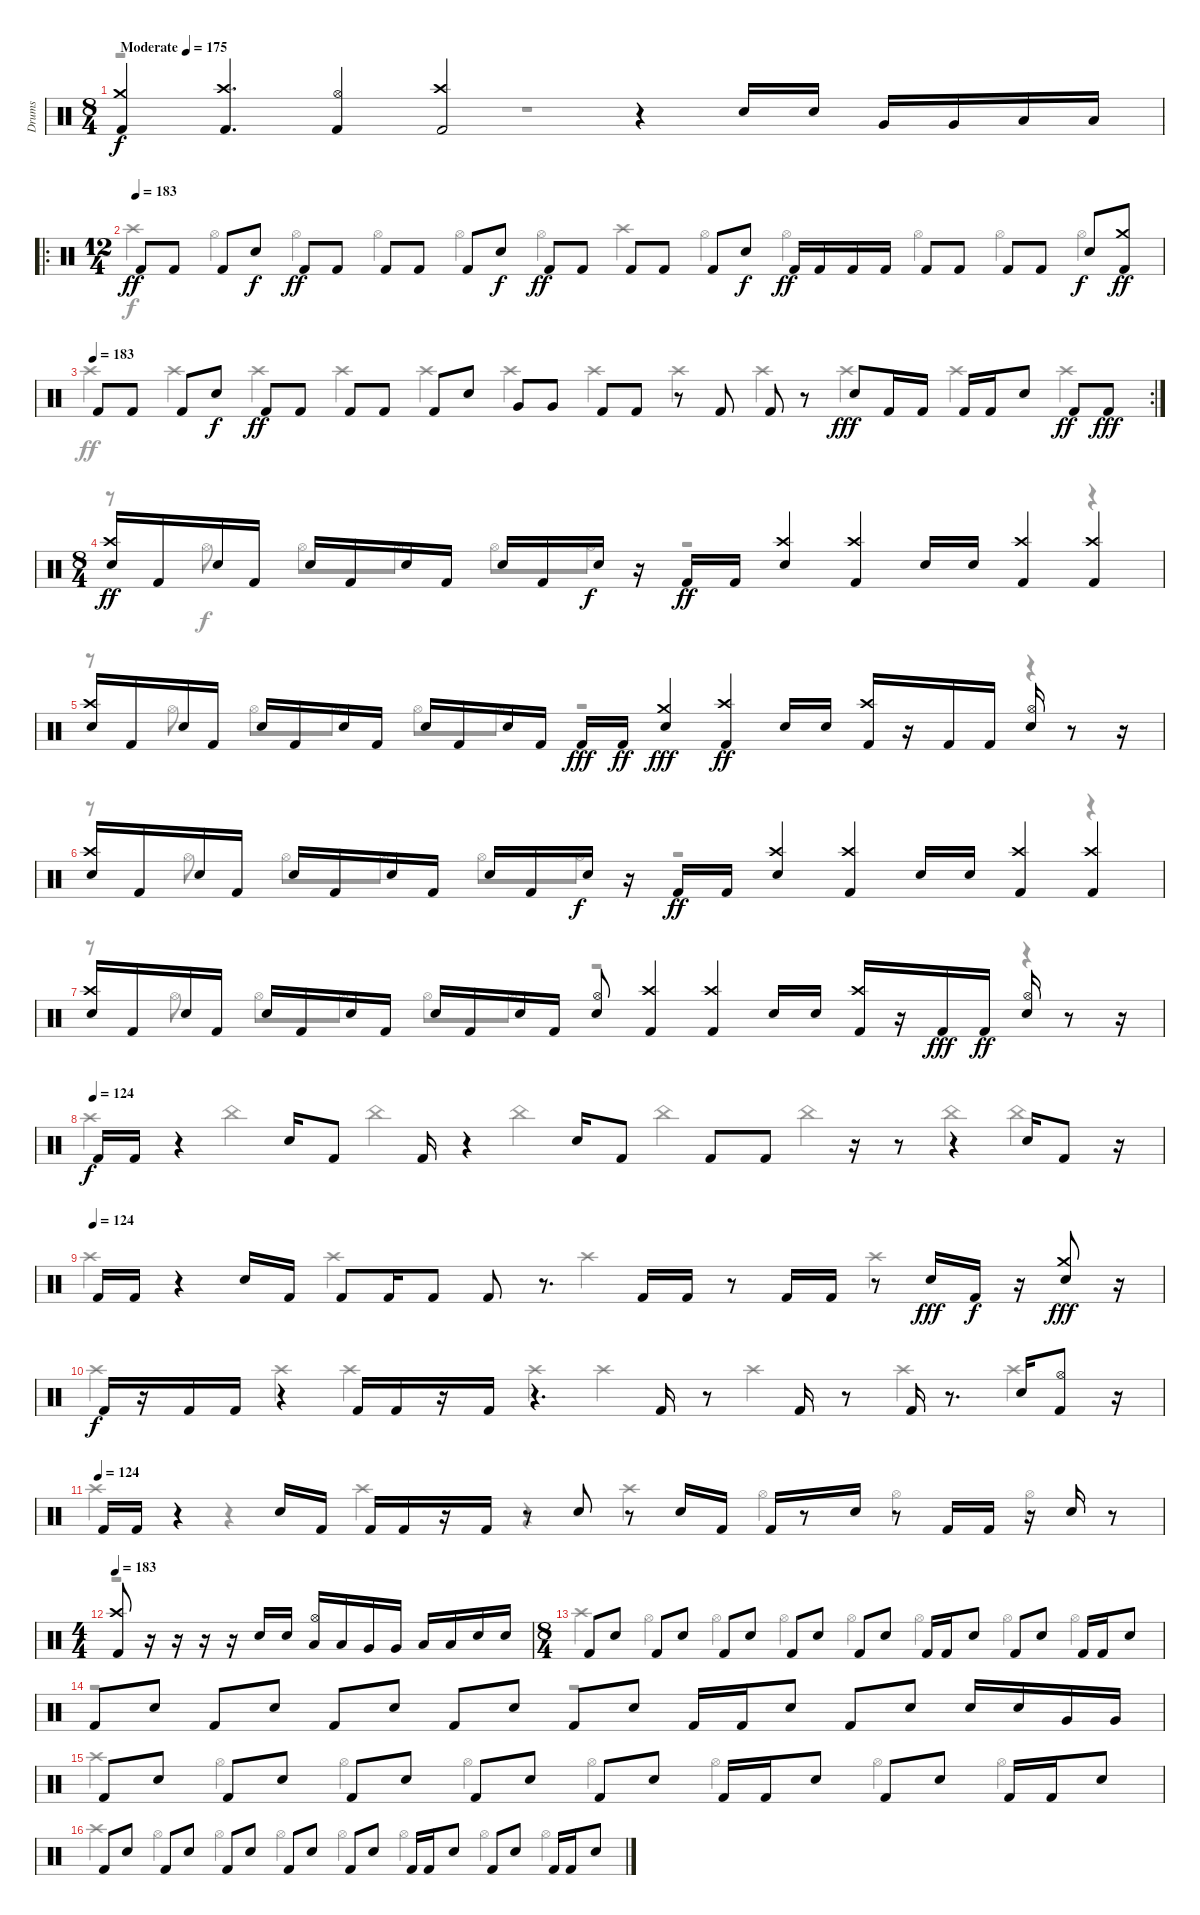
\track ("Drums" "Drums") {instrument percussion}
\staff {score}
\articulation defaults
\voice
\ts (8 4)
\tempo (175 "Moderate")
\tempo 170
\tempo (175 "Moderate")
\clef neutral
\ks c
("Crash medium (hit)" "Kick (hit) 2").4{dy f} ("Crash high (hit)" "Kick (hit) 2").4{d} ("Hi-Hat (open)" "Kick (hit) 2").4 ("Crash high (hit)" "Kick (hit) 2").2 r.4 "Electric Snare (hit)".16 "Electric Snare (hit)".16 "Very Low Tom (hit)".16 "Very Low Tom (hit)".16 "Low Tom (hit)".16 "Low Tom (hit)".16 |
\ro
\ts (12 4)
\tempo (183)
"Kick (hit) 2".8{dy ff} "Kick (hit) 2".8 "Kick (hit) 2".8 "Electric Snare (hit)".8{dy f} "Kick (hit) 2".8{dy ff} "Kick (hit) 2".8 "Kick (hit) 2".8 "Kick (hit) 2".8 "Kick (hit) 2".8 "Electric Snare (hit)".8{dy f} "Kick (hit) 2".8{dy ff} "Kick (hit) 2".8 "Kick (hit) 2".8 "Kick (hit) 2".8 "Kick (hit) 2".8 "Electric Snare (hit)".8{dy f} "Kick (hit) 2".16{dy ff} "Kick (hit) 2".16 "Kick (hit) 2".16 "Kick (hit) 2".16 "Kick (hit) 2".8 "Kick (hit) 2".8 "Kick (hit) 2".8 "Kick (hit) 2".8 "Electric Snare (hit)".8{dy f} ("Crash medium (hit)" "Kick (hit) 2").8{dy ff} |
\rc 2
\tempo (183)
"Kick (hit) 2".8 "Kick (hit) 2".8 "Kick (hit) 2".8 "Electric Snare (hit)".8{dy f} "Kick (hit) 2".8{dy ff} "Kick (hit) 2".8 "Kick (hit) 2".8 "Kick (hit) 2".8 "Kick (hit) 2".8 "Electric Snare (hit)".8 "Very Low Tom (hit)".8 "Very Low Tom (hit)".8 "Kick (hit) 2".8 "Kick (hit) 2".8 r.8 "Kick (hit) 2".8 "Kick (hit) 2".8 r.8 "Electric Snare (hit)".8{dy fff} "Kick (hit) 2".16 "Kick (hit) 2".16 "Kick (hit) 2".16 "Kick (hit) 2".16 "Electric Snare (hit)".8 "Kick (hit) 2".8{dy ff} "Kick (hit) 2".8{dy fff} |
\ts (8 4)
("Crash high (hit)" "Electric Snare (hit)").16{dy ff} "Kick (hit) 2".16 "Electric Snare (hit)".16 "Kick (hit) 2".16 "Electric Snare (hit)".16 "Kick (hit) 2".16 "Electric Snare (hit)".16 "Kick (hit) 2".16 "Electric Snare (hit)".16 "Kick (hit) 2".16 "Electric Snare (hit)".16{dy f} r.16 "Kick (hit) 2".16{dy ff} "Kick (hit) 2".16 ("Crash high (hit)" "Electric Snare (hit)").4 ("Crash high (hit)" "Kick (hit) 2").4 "Electric Snare (hit)".16 "Electric Snare (hit)".16 ("Crash high (hit)" "Kick (hit) 2").4 ("Crash high (hit)" "Kick (hit) 2").4 |
("Crash high (hit)" "Electric Snare (hit)").16 "Kick (hit) 2".16 "Electric Snare (hit)".16 "Kick (hit) 2".16 "Electric Snare (hit)".16 "Kick (hit) 2".16 "Electric Snare (hit)".16 "Kick (hit) 2".16 "Electric Snare (hit)".16 "Kick (hit) 2".16 "Electric Snare (hit)".16 "Kick (hit) 2".16 "Kick (hit) 2".16{dy fff} "Kick (hit) 2".16{dy ff} ("Crash medium (hit)" "Electric Snare (hit)").4{dy fff} ("Crash high (hit)" "Kick (hit) 2").4{dy ff} "Electric Snare (hit)".16 "Electric Snare (hit)".16 ("Crash high (hit)" "Kick (hit) 2").16 r.16 "Kick (hit) 2".16 "Kick (hit) 2".16 ("Hi-Hat (open)" "Electric Snare (hit)").16 r.8 r.16 |
("Crash high (hit)" "Electric Snare (hit)").16 "Kick (hit) 2".16 "Electric Snare (hit)".16 "Kick (hit) 2".16 "Electric Snare (hit)".16 "Kick (hit) 2".16 "Electric Snare (hit)".16 "Kick (hit) 2".16 "Electric Snare (hit)".16 "Kick (hit) 2".16 "Electric Snare (hit)".16{dy f} r.16 "Kick (hit) 2".16{dy ff} "Kick (hit) 2".16 ("Crash high (hit)" "Electric Snare (hit)").4 ("Crash high (hit)" "Kick (hit) 2").4 "Electric Snare (hit)".16 "Electric Snare (hit)".16 ("Crash high (hit)" "Kick (hit) 2").4 ("Crash high (hit)" "Kick (hit) 2").4 |
("Crash high (hit)" "Electric Snare (hit)").16 "Kick (hit) 2".16 "Electric Snare (hit)".16 "Kick (hit) 2".16 "Electric Snare (hit)".16 "Kick (hit) 2".16 "Electric Snare (hit)".16 "Kick (hit) 2".16 "Electric Snare (hit)".16 "Kick (hit) 2".16 "Electric Snare (hit)".16 "Kick (hit) 2".16 ("Hi-Hat (open)" "Electric Snare (hit)").8 ("Crash high (hit)" "Kick (hit) 2").4 ("Crash high (hit)" "Kick (hit) 2").4 "Electric Snare (hit)".16 "Electric Snare (hit)".16 ("Crash high (hit)" "Kick (hit) 2").16 r.16 "Kick (hit) 2".16{dy fff} "Kick (hit) 2".16{dy ff} ("Hi-Hat (open)" "Electric Snare (hit)").16 r.8 r.16 |
\tempo (124)
"Kick (hit) 2".16{dy f} "Kick (hit) 2".16 r.4 "Electric Snare (hit)".16 "Kick (hit) 2".8 "Kick (hit) 2".16 r.4 "Electric Snare (hit)".16 "Kick (hit) 2".8 "Kick (hit) 2".8 "Kick (hit) 2".8 r.16 r.8 r.4 "Electric Snare (hit)".16 "Kick (hit) 2".8 r.16 |
\tempo (124)
"Kick (hit) 2".16 "Kick (hit) 2".16 r.4 "Electric Snare (hit)".16 "Kick (hit) 2".16 "Kick (hit) 2".8 "Kick (hit) 2".16 "Kick (hit) 2".8 "Kick (hit) 2".8 r.8{d} "Kick (hit) 2".16 "Kick (hit) 2".16 r.8 "Kick (hit) 2".16 "Kick (hit) 2".16 r.8 "Electric Snare (hit)".16{dy fff} "Kick (hit) 2".16{dy f} r.16 ("Crash medium (hit)" "Electric Snare (hit)").8{dy fff} r.16 |
"Kick (hit) 2".16{dy f} r.16 "Kick (hit) 2".16 "Kick (hit) 2".16 r.4 "Kick (hit) 2".16 "Kick (hit) 2".16 r.16 "Kick (hit) 2".16 r.4{d} "Kick (hit) 2".16 r.8 "Kick (hit) 2".16 r.8 "Kick (hit) 2".16 r.8{d} "Electric Snare (hit)".16 ("Hi-Hat (open)" "Kick (hit) 2").8 r.16 |
\tempo (124)
"Kick (hit) 2".16 "Kick (hit) 2".16 r.4 "Electric Snare (hit)".16 "Kick (hit) 2".16 "Kick (hit) 2".16 "Kick (hit) 2".16 r.16 "Kick (hit) 2".16 r.8 "Electric Snare (hit)".8 r.8 "Electric Snare (hit)".16 "Kick (hit) 2".16 "Kick (hit) 2".16 r.8 "Electric Snare (hit)".16 r.8 "Kick (hit) 2".16 "Kick (hit) 2".16 r.16 "Electric Snare (hit)".16 r.8 |
\ts (4 4)
\tempo 183
("Crash high (hit)" "Kick (hit) 2").8 r.16 r.16 r.16 r.16 "Electric Snare (hit)".16 "Electric Snare (hit)".16 ("Hi-Hat (open)" "Low Tom (hit)").16 "Low Tom (hit)".16 "Very Low Tom (hit)".16 "Very Low Tom (hit)".16 "Low Floor Tom (hit)".16 "Low Floor Tom (hit)".16 "Electric Snare (hit)".16 "Electric Snare (hit)".16 |
\ts (8 4)
"Kick (hit) 2".8 "Electric Snare (hit)".8 "Kick (hit) 2".8 "Electric Snare (hit)".8 "Kick (hit) 2".8 "Electric Snare (hit)".8 "Kick (hit) 2".8 "Electric Snare (hit)".8 "Kick (hit) 2".8 "Electric Snare (hit)".8 "Kick (hit) 2".16 "Kick (hit) 2".16 "Electric Snare (hit)".8 "Kick (hit) 2".8 "Electric Snare (hit)".8 "Kick (hit) 2".16 "Kick (hit) 2".16 "Electric Snare (hit)".8 |
"Kick (hit) 2".8 "Electric Snare (hit)".8 "Kick (hit) 2".8 "Electric Snare (hit)".8 "Kick (hit) 2".8 "Electric Snare (hit)".8 "Kick (hit) 2".8 "Electric Snare (hit)".8 "Kick (hit) 2".8 "Electric Snare (hit)".8 "Kick (hit) 2".16 "Kick (hit) 2".16 "Electric Snare (hit)".8 "Kick (hit) 2".8 "Electric Snare (hit)".8 "Electric Snare (hit)".16 "Electric Snare (hit)".16 "Very Low Tom (hit)".16 "Very Low Tom (hit)".16 |
"Kick (hit) 2".8 "Electric Snare (hit)".8 "Kick (hit) 2".8 "Electric Snare (hit)".8 "Kick (hit) 2".8 "Electric Snare (hit)".8 "Kick (hit) 2".8 "Electric Snare (hit)".8 "Kick (hit) 2".8 "Electric Snare (hit)".8 "Kick (hit) 2".16 "Kick (hit) 2".16 "Electric Snare (hit)".8 "Kick (hit) 2".8 "Electric Snare (hit)".8 "Kick (hit) 2".16 "Kick (hit) 2".16 "Electric Snare (hit)".8 |
"Kick (hit) 2".8 "Electric Snare (hit)".8 "Kick (hit) 2".8 "Electric Snare (hit)".8 "Kick (hit) 2".8 "Electric Snare (hit)".8 "Kick (hit) 2".8 "Electric Snare (hit)".8 "Kick (hit) 2".8 "Electric Snare (hit)".8 "Kick (hit) 2".16 "Kick (hit) 2".16 "Electric Snare (hit)".8 "Kick (hit) 2".8 "Electric Snare (hit)".8 "Kick (hit) 2".16 "Kick (hit) 2".16 "Electric Snare (hit)".8
\voice
\clef neutral
\ottava regular
\simile none
\ks c
r.1{dy f} r.1 |
"Crash high (hit)".4 "Hi-Hat (open)".4 "Hi-Hat (open)".4 "Hi-Hat (open)".4 "Hi-Hat (open)".4 "Hi-Hat (open)".4 "Crash high (hit)".4 "Hi-Hat (open)".4 "Hi-Hat (open)".4 "Hi-Hat (open)".4 "Hi-Hat (open)".4 "Hi-Hat (open)".4 |
"Crash high (hit)".4{dy ff} "Crash high (hit)".4 "Crash high (hit)".4 "Crash high (hit)".4 "Crash high (hit)".4 "Crash high (hit)".4 "Crash high (hit)".4 "Crash high (hit)".4 "Crash high (hit)".4 "Crash high (hit)".4 "Crash high (hit)".4 "Crash high (hit)".4 |
r.8 "Hi-Hat (open)".8{dy f} "Hi-Hat (open)".8 "Hi-Hat (open)".8 "Hi-Hat (open)".8 "Hi-Hat (open)".8 r.1 r.4 |
r.8 "Hi-Hat (open)".8 "Hi-Hat (open)".8 "Hi-Hat (open)".8 "Hi-Hat (open)".8 "Hi-Hat (open)".8 r.1 r.4 |
r.8 "Hi-Hat (open)".8 "Hi-Hat (open)".8 "Hi-Hat (open)".8 "Hi-Hat (open)".8 "Hi-Hat (open)".8 r.1 r.4 |
r.8 "Hi-Hat (open)".8 "Hi-Hat (open)".8 "Hi-Hat (open)".8 "Hi-Hat (open)".8 "Hi-Hat (open)".8 r.1 r.4 |
"Crash high (hit)".4 "China (hit)".4 "China (hit)".4 "China (hit)".4 "China (hit)".4 "China (hit)".4 "China (hit)".4 "China (hit)".4 |
"Crash high (hit)".2 "Crash high (hit)".2 "Crash high (hit)".2 "Crash high (hit)".2 |
"Crash high (hit)".4 "Crash high (hit)".4 "Crash high (hit)".4 "Crash high (hit)".4 "Crash high (hit)".4 "Crash high (hit)".4 "Crash high (hit)".4 "Crash high (hit)".4 |
"Crash high (hit)".4 r.4 "Crash high (hit)".4 r.4 "Crash high (hit)".4 "Hi-Hat (open)".4 "Hi-Hat (open)".4 "Hi-Hat (open)".4 |
r.1 |
"Crash high (hit)".4 "Hi-Hat (open)".4 "Hi-Hat (open)".4 "Hi-Hat (open)".4 "Hi-Hat (open)".4 "Hi-Hat (open)".4 "Hi-Hat (open)".4 "Hi-Hat (open)".4 |
r.1 r.1 |
"Crash high (hit)".4 "Hi-Hat (open)".4 "Hi-Hat (open)".4 "Hi-Hat (open)".4 "Hi-Hat (open)".4 "Hi-Hat (open)".4 "Hi-Hat (open)".4 "Hi-Hat (open)".4 |
"Crash high (hit)".4 "Hi-Hat (open)".4 "Hi-Hat (open)".4 "Hi-Hat (open)".4 "Hi-Hat (open)".4 "Hi-Hat (open)".4 "Hi-Hat (open)".4 "Hi-Hat (open)".4
